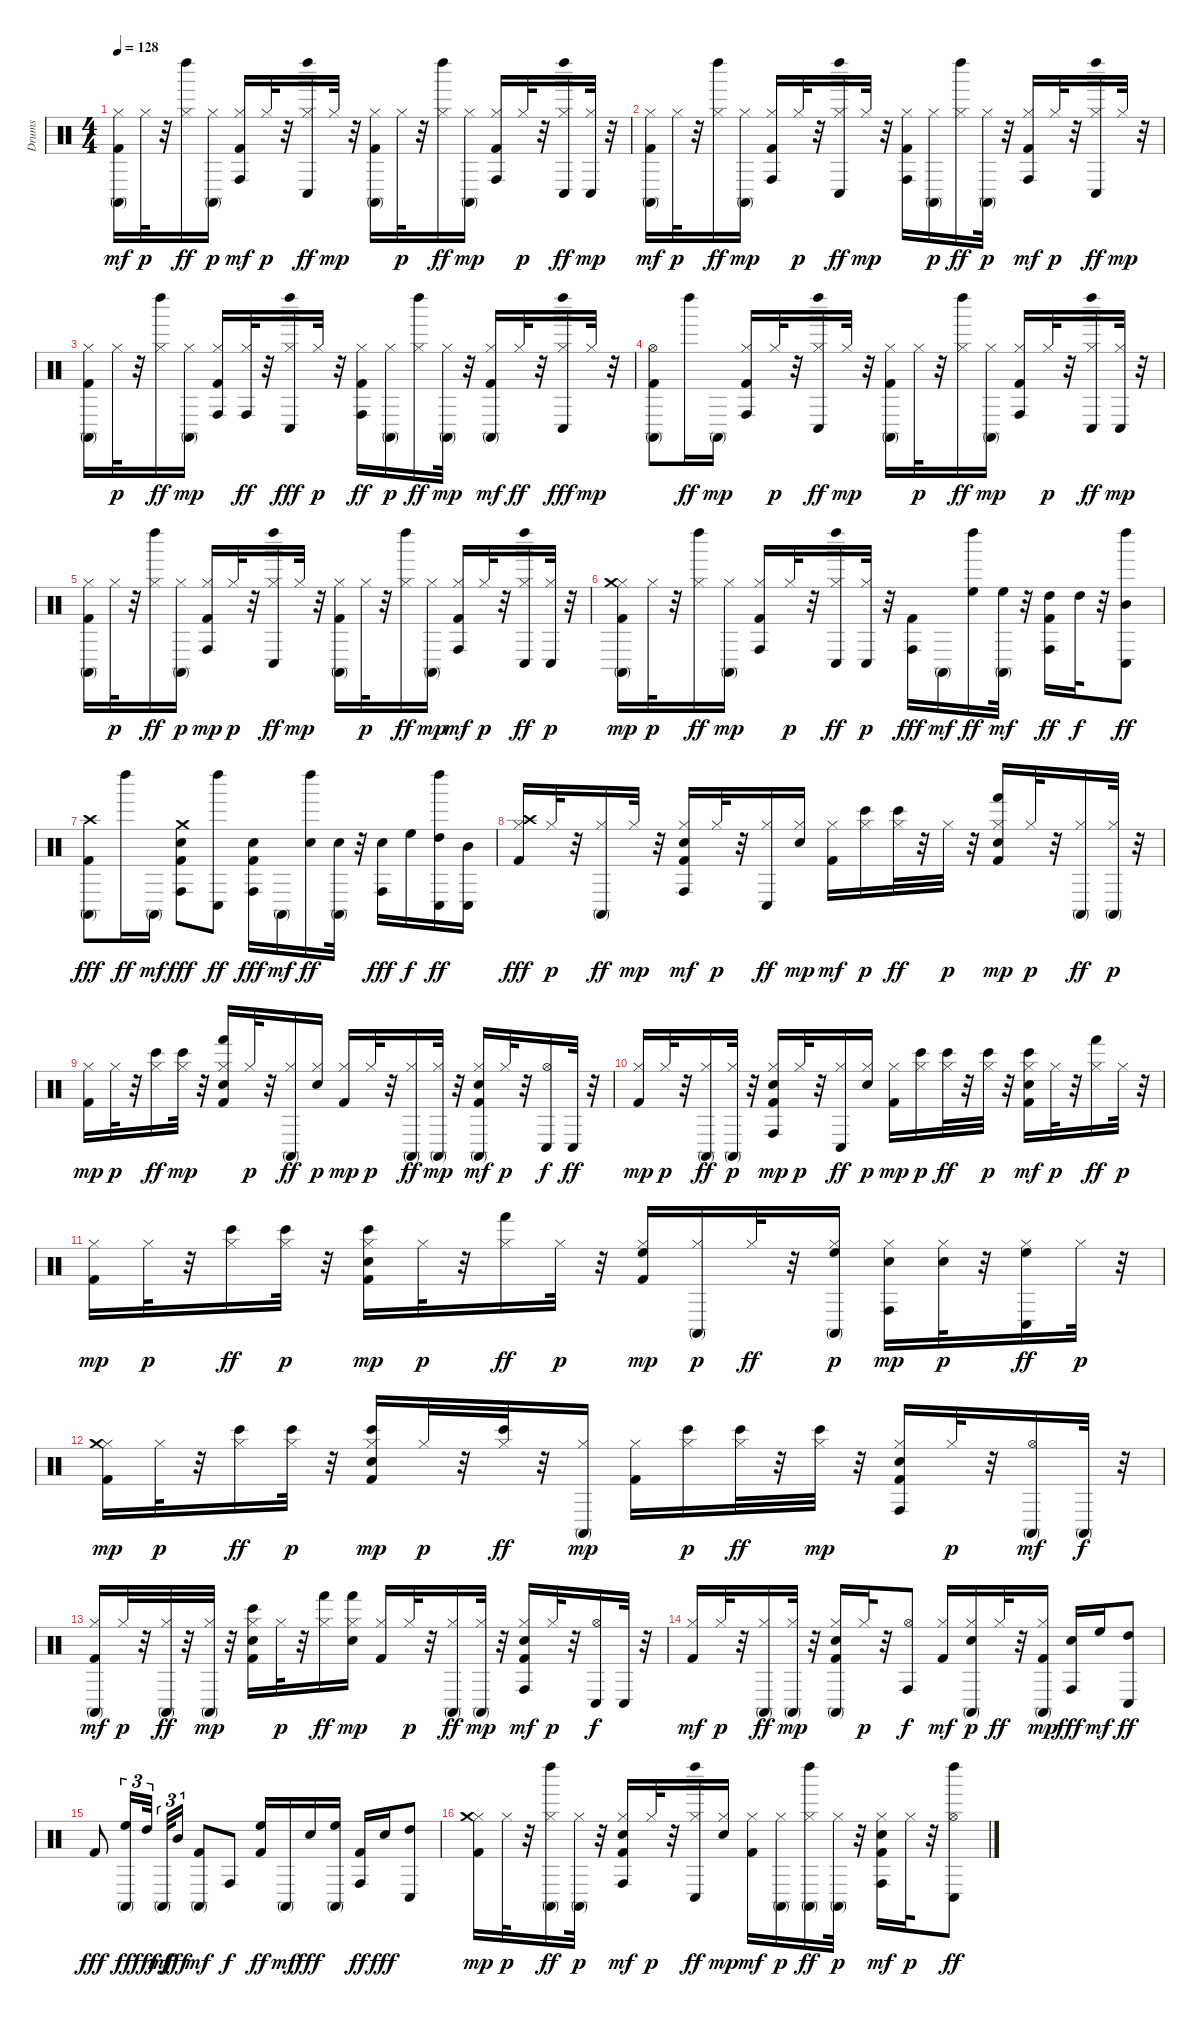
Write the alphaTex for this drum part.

\track ("Drums" "Drums") {instrument percussion}
\staff {score}
\articulation defaults
\ts (4 4)
\tempo 128
\clef neutral
\ks c
("Kick (hit) 2" "Conga high (mute)" "Hi-Hat (closed)").16{dy mf} "Hi-Hat (closed)".32{dy p} r.32 ("Left Maraca (hit)" "Hi-Hat (closed)").16{dy ff} ("Conga high (mute)" "Hi-Hat (closed)").16{dy p} ("Kick (hit) 2" "Conga high (hit)" "Hi-Hat (closed)").16{dy mf} "Hi-Hat (closed)".32{dy p} r.32 ("Conga low (hit)" "Left Maraca (hit)" "Hi-Hat (closed)").16{dy ff} "Hi-Hat (closed)".32{dy mp} r.32 ("Kick (hit) 2" "Conga high (mute)" "Hi-Hat (closed)").16 "Hi-Hat (closed)".32{dy p} r.32 ("Left Maraca (hit)" "Hi-Hat (closed)").16{dy ff} ("Conga high (mute)" "Hi-Hat (closed)").16{dy mp} ("Kick (hit) 2" "Conga high (hit)" "Hi-Hat (closed)").16 "Hi-Hat (closed)".32{dy p} r.32 ("Conga low (hit)" "Left Maraca (hit)" "Hi-Hat (closed)").16{dy ff} ("Conga low (hit)" "Hi-Hat (closed)").32{dy mp} r.32 |
("Kick (hit) 2" "Conga high (mute)" "Hi-Hat (closed)").16{dy mf} "Hi-Hat (closed)".32{dy p} r.32 ("Left Maraca (hit)" "Hi-Hat (closed)").16{dy ff} ("Conga high (mute)" "Hi-Hat (closed)").16{dy mp} ("Kick (hit) 2" "Conga high (hit)" "Hi-Hat (closed)").16 "Hi-Hat (closed)".32{dy p} r.32 ("Conga low (hit)" "Left Maraca (hit)" "Hi-Hat (closed)").16{dy ff} "Hi-Hat (closed)".32{dy mp} r.32 ("Kick (hit) 2" "Conga high (hit)" "Hi-Hat (closed)").16 ("Conga high (mute)" "Hi-Hat (closed)").16{dy p} ("Left Maraca (hit)" "Hi-Hat (closed)").16{dy ff} ("Conga high (mute)" "Hi-Hat (closed)").32{dy p} r.32 ("Kick (hit) 2" "Conga high (hit)" "Hi-Hat (closed)").16{dy mf} "Hi-Hat (closed)".32{dy p} r.32 ("Conga low (hit)" "Left Maraca (hit)" "Hi-Hat (closed)").16{dy ff} "Hi-Hat (closed)".32{dy mp} r.32 |
("Kick (hit) 2" "Conga high (mute)" "Hi-Hat (closed)").16 "Hi-Hat (closed)".32{dy p} r.32 ("Left Maraca (hit)" "Hi-Hat (closed)").16{dy ff} ("Conga high (mute)" "Hi-Hat (closed)").16{dy mp} ("Kick (hit) 2" "Conga high (hit)" "Hi-Hat (closed)").16 ("Conga high (hit)" "Hi-Hat (closed)").32{dy ff} r.32 ("Conga low (hit)" "Left Maraca (hit)" "Hi-Hat (closed)").16{dy fff} "Hi-Hat (closed)".32{dy p} r.32 ("Kick (hit) 2" "Conga high (hit)" "Hi-Hat (closed)").16{dy ff} ("Conga high (mute)" "Hi-Hat (closed)").16{dy p} ("Left Maraca (hit)" "Hi-Hat (closed)").16{dy ff} ("Conga high (mute)" "Hi-Hat (closed)").32{dy mp} r.32 ("Kick (hit) 2" "Conga high (mute)" "Hi-Hat (closed)").16{dy mf} "Hi-Hat (closed)".32{dy ff} r.32 ("Conga low (hit)" "Left Maraca (hit)" "Hi-Hat (closed)").16{dy fff} "Hi-Hat (closed)".32{dy mp} r.32 |
("Kick (hit) 2" "Conga high (mute)" "Hi-Hat (open)").8 "Left Maraca (hit)".16{dy ff} "Conga high (mute)".16{dy mp} ("Kick (hit) 2" "Conga high (hit)" "Hi-Hat (closed)").16 "Hi-Hat (closed)".32{dy p} r.32 ("Conga low (hit)" "Left Maraca (hit)" "Hi-Hat (closed)").16{dy ff} "Hi-Hat (closed)".32{dy mp} r.32 ("Kick (hit) 2" "Conga high (mute)" "Hi-Hat (closed)").16 "Hi-Hat (closed)".32{dy p} r.32 ("Left Maraca (hit)" "Hi-Hat (closed)").16{dy ff} ("Conga high (mute)" "Hi-Hat (closed)").16{dy mp} ("Kick (hit) 2" "Conga high (hit)" "Hi-Hat (closed)").16 "Hi-Hat (closed)".32{dy p} r.32 ("Conga low (hit)" "Left Maraca (hit)" "Hi-Hat (closed)").16{dy ff} ("Conga low (hit)" "Hi-Hat (closed)").32{dy mp} r.32 |
("Kick (hit) 2" "Conga high (mute)" "Hi-Hat (closed)").16 "Hi-Hat (closed)".32{dy p} r.32 ("Left Maraca (hit)" "Hi-Hat (closed)").16{dy ff} ("Conga high (mute)" "Hi-Hat (closed)").16{dy p} ("Kick (hit) 2" "Conga high (hit)" "Hi-Hat (closed)").16{dy mp} "Hi-Hat (closed)".32{dy p} r.32 ("Conga low (hit)" "Left Maraca (hit)" "Hi-Hat (closed)").16{dy ff} "Hi-Hat (closed)".32{dy mp} r.32 ("Kick (hit) 2" "Conga high (mute)" "Hi-Hat (closed)").16 "Hi-Hat (closed)".32{dy p} r.32 ("Left Maraca (hit)" "Hi-Hat (closed)").16{dy ff} ("Conga high (mute)" "Hi-Hat (closed)").16{dy mp} ("Kick (hit) 2" "Conga high (hit)" "Hi-Hat (closed)").16{dy mf} "Hi-Hat (closed)".32{dy p} r.32 ("Conga low (hit)" "Left Maraca (hit)" "Hi-Hat (closed)").16{dy ff} ("Conga low (hit)" "Hi-Hat (closed)").32{dy p} r.32 |
("Kick (hit) 2" "Conga high (mute)" "Hi-Hat (closed)" "Crash medium (hit)").16{dy mp} "Hi-Hat (closed)".32{dy p} r.32 ("Left Maraca (hit)" "Hi-Hat (closed)").16{dy ff} ("Conga high (mute)" "Hi-Hat (closed)").16{dy mp} ("Kick (hit) 2" "Conga high (hit)" "Hi-Hat (closed)").16 "Hi-Hat (closed)".32{dy p} r.32 ("Conga low (hit)" "Left Maraca (hit)" "Hi-Hat (closed)").16{dy ff} ("Conga low (hit)" "Hi-Hat (closed)").32{dy p} r.32 ("Kick (hit) 2" "Conga high (hit)").16{dy fff} "Conga high (mute)".16{dy mf} ("Left Maraca (hit)" "High Floor Tom (hit)").16{dy ff} ("Conga high (mute)" "High Floor Tom (hit)").32{dy mf} r.32 ("Kick (hit) 2" "Conga high (hit)" "High Tom (hit)").16{dy ff} "High Tom (hit)".32{dy f} r.32 ("Conga low (hit)" "Left Maraca (hit)" "Mid Tom (hit)").8{dy ff} |
("Kick (hit) 2" "Conga high (mute)" "Crash high (hit)").8{dy fff} "Left Maraca (hit)".16{dy ff} "Conga high (mute)".16{dy mf} ("Kick (hit) 2" "Conga high (hit)" "Electric Snare (hit)" "Crash medium (hit)").8{dy fff} ("Conga low (hit)" "Left Maraca (hit)").8{dy ff} ("Kick (hit) 2" "Conga high (hit)" "Electric Snare (hit)").16{dy fff} "Conga high (mute)".16{dy mf} ("Left Maraca (hit)" "Electric Snare (hit)").16{dy ff} ("Conga high (mute)" "Electric Snare (hit)").32 r.32 ("Conga high (hit)" "Electric Snare (hit)").16{dy fff} "High Floor Tom (hit)".16{dy f} ("Conga low (hit)" "Left Maraca (hit)" "High Tom (hit)").16{dy ff} ("Conga low (hit)" "Mid Tom (hit)").16 |
("Kick (hit) 2" "Hi-Hat (closed)" "Crash high (hit)").16{dy fff} "Hi-Hat (closed)".32{dy p} r.32 ("Conga high (mute)" "Hi-Hat (closed)").16{dy ff} "Hi-Hat (closed)".32{dy mp} r.32 ("Kick (hit) 2" "Conga high (hit)" "Electric Snare (hit)" "Hi-Hat (closed)").16{dy mf} "Hi-Hat (closed)".32{dy p} r.32 ("Conga low (hit)" "Hi-Hat (closed)").16{dy ff} ("Electric Snare (hit)" "Hi-Hat (closed)").16{dy mp} ("Kick (hit) 2" "Hi-Hat (closed)").16{dy mf} ("Bongo High (hit)" "Hi-Hat (closed)").16{dy p} ("Bongo High (hit)" "Hi-Hat (closed)").32{dy ff} r.32 "Hi-Hat (closed)".32{dy p} r.32 ("Kick (hit) 2" "Hand (hit)" "Electric Snare (hit)" "Hi-Hat (closed)").16{dy mp} "Hi-Hat (closed)".32{dy p} r.32 ("Conga high (mute)" "Hi-Hat (closed)").16{dy ff} ("Conga high (mute)" "Hi-Hat (closed)").32{dy p} r.32 |
("Kick (hit) 2" "Hi-Hat (closed)").16{dy mp} "Hi-Hat (closed)".32{dy p} r.32 ("Bongo High (hit)" "Hi-Hat (closed)").16{dy ff} ("Bongo High (hit)" "Hi-Hat (closed)").32{dy mp} r.32 ("Kick (hit) 2" "Hand (hit)" "Electric Snare (hit)" "Hi-Hat (closed)").16 "Hi-Hat (closed)".32{dy p} r.32 ("Conga high (mute)" "Hi-Hat (closed)").16{dy ff} ("Electric Snare (hit)" "Hi-Hat (closed)").16{dy p} ("Kick (hit) 2" "Hi-Hat (closed)").16{dy mp} "Hi-Hat (closed)".32{dy p} r.32 ("Conga high (mute)" "Hi-Hat (closed)").16{dy ff} ("Conga high (mute)" "Hi-Hat (closed)").32{dy mp} r.32 ("Kick (hit) 2" "Conga high (mute)" "Electric Snare (hit)" "Hi-Hat (closed)").16{dy mf} "Hi-Hat (closed)".32{dy p} r.32 ("Conga low (hit)" "Hi-Hat (open)").16{dy f} "Conga low (hit)".32{dy ff} r.32 |
("Kick (hit) 2" "Hi-Hat (closed)").16{dy mp} "Hi-Hat (closed)".32{dy p} r.32 ("Conga high (mute)" "Hi-Hat (closed)").16{dy ff} ("Conga high (mute)" "Hi-Hat (closed)").32{dy p} r.32 ("Kick (hit) 2" "Conga high (hit)" "Electric Snare (hit)" "Hi-Hat (closed)").16{dy mp} "Hi-Hat (closed)".32{dy p} r.32 ("Conga low (hit)" "Hi-Hat (closed)").16{dy ff} ("Electric Snare (hit)" "Hi-Hat (closed)").16{dy p} ("Kick (hit) 2" "Hi-Hat (closed)").16{dy mp} ("Bongo High (hit)" "Hi-Hat (closed)").16{dy p} ("Bongo High (hit)" "Hi-Hat (closed)").32{dy ff} r.32 ("Bongo High (hit)" "Hi-Hat (closed)").32{dy p} r.32 ("Kick (hit) 2" "Bongo High (hit)" "Electric Snare (hit)" "Hi-Hat (closed)").16{dy mf} "Hi-Hat (closed)".32{dy p} r.32 ("Hand (hit)" "Hi-Hat (closed)").16{dy ff} "Hi-Hat (closed)".32{dy p} r.32 |
("Kick (hit) 2" "Hi-Hat (closed)").16{dy mp} "Hi-Hat (closed)".32{dy p} r.32 ("Bongo High (hit)" "Hi-Hat (closed)").16{dy ff} ("Bongo High (hit)" "Hi-Hat (closed)").32{dy p} r.32 ("Kick (hit) 2" "Bongo High (hit)" "Electric Snare (hit)" "Hi-Hat (closed)").16{dy mp} "Hi-Hat (closed)".32{dy p} r.32 ("Hand (hit)" "Hi-Hat (closed)").16{dy ff} "Hi-Hat (closed)".32{dy p} r.32 ("Kick (hit) 2" "High Floor Tom (hit)" "Hi-Hat (closed)").16{dy mp} ("Conga high (mute)" "Hi-Hat (closed)").16{dy p} "Hi-Hat (closed)".32{dy ff} r.32 ("Conga high (mute)" "High Floor Tom (hit)" "Hi-Hat (closed)").16{dy p} ("Conga high (hit)" "Electric Snare (hit)" "Hi-Hat (closed)").16{dy mp} ("Electric Snare (hit)" "Hi-Hat (closed)").32{dy p} r.32 ("Conga low (hit)" "High Floor Tom (hit)" "Hi-Hat (closed)").16{dy ff} "Hi-Hat (closed)".32{dy p} r.32 |
("Kick (hit) 2" "Hi-Hat (closed)" "Crash medium (hit)").16{dy mp} "Hi-Hat (closed)".32{dy p} r.32 ("Bongo High (hit)" "Hi-Hat (closed)").16{dy ff} ("Bongo High (hit)" "Hi-Hat (closed)").32{dy p} r.32 ("Kick (hit) 2" "Bongo High (hit)" "Electric Snare (hit)" "Hi-Hat (closed)").16{dy mp} "Hi-Hat (closed)".32{dy p} r.32 ("Bongo High (hit)" "Hi-Hat (closed)").32{dy ff} r.32 ("Conga high (mute)" "Hi-Hat (closed)").16{dy mp} ("Kick (hit) 2" "Hi-Hat (closed)").16 ("Bongo High (hit)" "Hi-Hat (closed)").16{dy p} ("Bongo High (hit)" "Hi-Hat (closed)").32{dy ff} r.32 ("Bongo High (hit)" "Hi-Hat (closed)").32{dy mp} r.32 ("Kick (hit) 2" "Conga high (hit)" "Electric Snare (hit)" "Hi-Hat (closed)").16 "Hi-Hat (closed)".32{dy p} r.32 ("Conga high (mute)" "Hi-Hat (open)").16{dy mf} "Conga high (mute)".32{dy f} r.32 |
("Kick (hit) 2" "Conga high (mute)" "Hi-Hat (closed)").16{dy mf} "Hi-Hat (closed)".32{dy p} r.32 ("Conga high (mute)" "Hi-Hat (closed)").32{dy ff} r.32 ("Conga high (mute)" "Hi-Hat (closed)").32{dy mp} r.32 ("Kick (hit) 2" "Bongo High (hit)" "Electric Snare (hit)" "Hi-Hat (closed)").16 "Hi-Hat (closed)".32{dy p} r.32 ("Hand (hit)" "Hi-Hat (closed)").16{dy ff} ("Hand (hit)" "Electric Snare (hit)" "Hi-Hat (closed)").16{dy mp} ("Kick (hit) 2" "Hi-Hat (closed)").16 "Hi-Hat (closed)".32{dy p} r.32 ("Conga high (mute)" "Hi-Hat (closed)").16{dy ff} ("Conga high (mute)" "Hi-Hat (closed)").32{dy mp} r.32 ("Kick (hit) 2" "Conga high (hit)" "Electric Snare (hit)" "Hi-Hat (closed)").16{dy mf} "Hi-Hat (closed)".32{dy p} r.32 ("Conga low (hit)" "Hi-Hat (open)").16{dy f} "Conga low (hit)".32 r.32 |
("Kick (hit) 2" "Hi-Hat (closed)").16{dy mf} "Hi-Hat (closed)".32{dy p} r.32 ("Conga high (mute)" "Hi-Hat (closed)").16{dy ff} ("Conga high (mute)" "Hi-Hat (closed)").32{dy mp} r.32 ("Kick (hit) 2" "Conga high (mute)" "Electric Snare (hit)" "Hi-Hat (closed)").16 "Hi-Hat (closed)".32{dy p} r.32 ("Conga high (hit)" "Hi-Hat (open)").8{dy f} ("Kick (hit) 2" "Hi-Hat (closed)").16{dy mf} ("Conga high (mute)" "Electric Snare (hit)" "Hi-Hat (closed)").16{dy p} "Hi-Hat (closed)".32{dy ff} r.32 ("Kick (hit) 2" "Conga high (mute)" "Hi-Hat (closed)").16{dy mp} ("Conga high (hit)" "Electric Snare (hit)").16{dy fff} "High Floor Tom (hit)".16{dy mf} ("Conga low (hit)" "High Tom (hit)").8{dy ff} |
"Kick (hit) 2".8{dy fff} ("Conga high (mute)" "High Floor Tom (hit)").16{tu (3 2) dy ff} "High Tom (hit)".32{tu (3 2) dy fff beam splitsecondary} "Conga high (mute)".32{tu (3 2) dy mf} "Mid Tom (hit)".16{tu (3 2) dy fff} ("Kick (hit) 2" "Conga high (mute)").8{dy mf} "Conga high (hit)".8{dy f} ("Kick (hit) 2" "High Floor Tom (hit)").16{dy ff} "Conga high (mute)".16{dy mf} "Electric Snare (hit)".16{dy fff} ("Conga high (mute)" "High Floor Tom (hit)").16 ("Kick (hit) 2" "Conga high (hit)").16{dy ff} "Electric Snare (hit)".16{dy fff} ("Conga low (hit)" "High Tom (hit)").8 |
("Kick (hit) 2" "Hi-Hat (closed)" "Crash medium (hit)").16{dy mp} "Hi-Hat (closed)".32{dy p} r.32 ("Conga high (mute)" "Left Maraca (hit)" "Hi-Hat (closed)").16{dy ff} ("Conga high (mute)" "Hi-Hat (closed)").32{dy p} r.32 ("Kick (hit) 2" "Conga high (hit)" "Electric Snare (hit)" "Hi-Hat (closed)").16{dy mf} "Hi-Hat (closed)".32{dy p} r.32 ("Conga low (hit)" "Left Maraca (hit)" "Hi-Hat (closed)").16{dy ff} ("Electric Snare (hit)" "Hi-Hat (closed)").16{dy mp} ("Kick (hit) 2" "Hi-Hat (closed)").16{dy mf} ("Conga high (mute)" "Hi-Hat (closed)").16{dy p} ("Conga high (mute)" "Left Maraca (hit)" "Hi-Hat (closed)").16{dy ff} ("Conga high (mute)" "Hi-Hat (closed)").32{dy p} r.32 ("Kick (hit) 2" "Conga high (hit)" "Electric Snare (hit)" "Hi-Hat (closed)").16{dy mf} "Hi-Hat (closed)".32{dy p} r.32 ("Conga low (hit)" "Left Maraca (hit)" "Hi-Hat (open)").8{dy ff}
